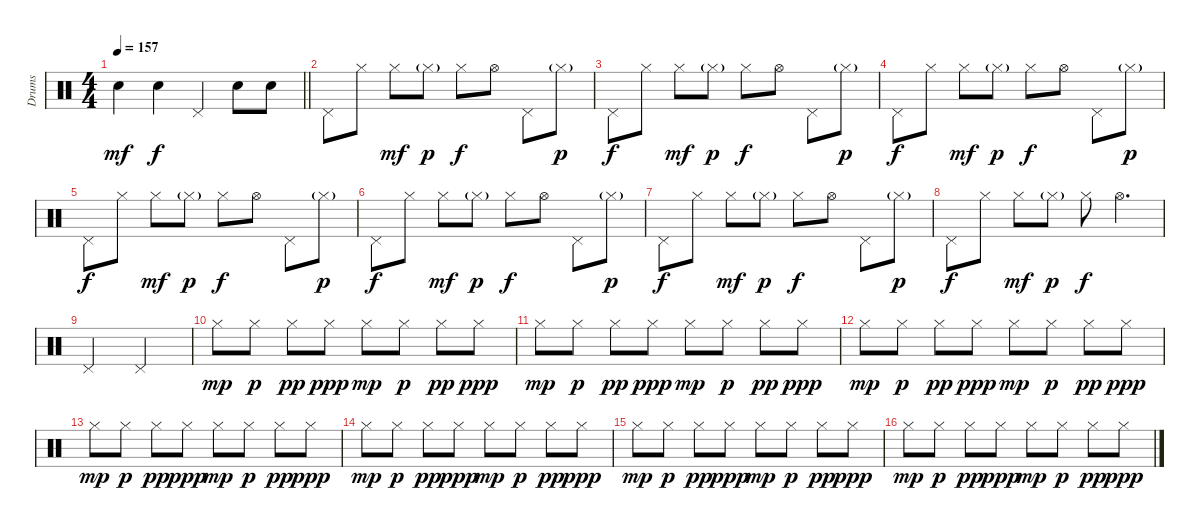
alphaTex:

\track ("Drums" "Drums") {instrument percussion}
\staff {score}
\articulation defaults
\ts (4 4)
\tempo 157
\clef neutral
\barLineRight lightlight
\ks c "Electric Snare (hit)".4{dy mf} "Electric Snare (hit)".4{dy f} "Pedal Hi-Hat (hit)".4 "Electric Snare (hit)".8 "Electric Snare (hit)".8
|
\section ("" "")
"Pedal Hi-Hat (hit)".8{volume 5} "Hi-Hat (closed)".8 "Hi-Hat (closed)".8{dy mf} "Hi-Hat (closed)"{g}.8{dy p} "Hi-Hat (closed)".8{dy f} "Hi-Hat (open)".8 "Pedal Hi-Hat (hit)".8 "Hi-Hat (closed)"{g}.8{dy p} |
"Pedal Hi-Hat (hit)".8{dy f} "Hi-Hat (closed)".8 "Hi-Hat (closed)".8{dy mf} "Hi-Hat (closed)"{g}.8{dy p} "Hi-Hat (closed)".8{dy f} "Hi-Hat (open)".8 "Pedal Hi-Hat (hit)".8 "Hi-Hat (closed)"{g}.8{dy p} |
"Pedal Hi-Hat (hit)".8{dy f} "Hi-Hat (closed)".8 "Hi-Hat (closed)".8{dy mf} "Hi-Hat (closed)"{g}.8{dy p} "Hi-Hat (closed)".8{dy f} "Hi-Hat (open)".8 "Pedal Hi-Hat (hit)".8 "Hi-Hat (closed)"{g}.8{dy p} |
"Pedal Hi-Hat (hit)".8{dy f} "Hi-Hat (closed)".8 "Hi-Hat (closed)".8{dy mf} "Hi-Hat (closed)"{g}.8{dy p} "Hi-Hat (closed)".8{dy f} "Hi-Hat (open)".8 "Pedal Hi-Hat (hit)".8 "Hi-Hat (closed)"{g}.8{dy p} |
"Pedal Hi-Hat (hit)".8{dy f} "Hi-Hat (closed)".8 "Hi-Hat (closed)".8{dy mf} "Hi-Hat (closed)"{g}.8{dy p} "Hi-Hat (closed)".8{dy f} "Hi-Hat (open)".8 "Pedal Hi-Hat (hit)".8 "Hi-Hat (closed)"{g}.8{dy p} |
"Pedal Hi-Hat (hit)".8{dy f} "Hi-Hat (closed)".8 "Hi-Hat (closed)".8{dy mf} "Hi-Hat (closed)"{g}.8{dy p} "Hi-Hat (closed)".8{dy f} "Hi-Hat (open)".8 "Pedal Hi-Hat (hit)".8 "Hi-Hat (closed)"{g}.8{dy p} |
"Pedal Hi-Hat (hit)".8{dy f} "Hi-Hat (closed)".8 "Hi-Hat (closed)".8{dy mf} "Hi-Hat (closed)"{g}.8{dy p} "Hi-Hat (closed)".8{dy f} "Hi-Hat (open)".4{d} |
"Pedal Hi-Hat (hit)".2 "Pedal Hi-Hat (hit)".2 |
"Hi-Hat (closed)".8{dy mp} "Hi-Hat (closed)".8{dy p} "Hi-Hat (closed)".8{dy pp} "Hi-Hat (closed)".8{dy ppp} "Hi-Hat (closed)".8{dy mp} "Hi-Hat (closed)".8{dy p} "Hi-Hat (closed)".8{dy pp} "Hi-Hat (closed)".8{dy ppp} |
"Hi-Hat (closed)".8{dy mp} "Hi-Hat (closed)".8{dy p} "Hi-Hat (closed)".8{dy pp} "Hi-Hat (closed)".8{dy ppp} "Hi-Hat (closed)".8{dy mp} "Hi-Hat (closed)".8{dy p} "Hi-Hat (closed)".8{dy pp} "Hi-Hat (closed)".8{dy ppp} |
"Hi-Hat (closed)".8{dy mp} "Hi-Hat (closed)".8{dy p} "Hi-Hat (closed)".8{dy pp} "Hi-Hat (closed)".8{dy ppp} "Hi-Hat (closed)".8{dy mp} "Hi-Hat (closed)".8{dy p} "Hi-Hat (closed)".8{dy pp} "Hi-Hat (closed)".8{dy ppp} |
"Hi-Hat (closed)".8{dy mp} "Hi-Hat (closed)".8{dy p} "Hi-Hat (closed)".8{dy pp} "Hi-Hat (closed)".8{dy ppp} "Hi-Hat (closed)".8{dy mp} "Hi-Hat (closed)".8{dy p} "Hi-Hat (closed)".8{dy pp} "Hi-Hat (closed)".8{dy ppp} |
"Hi-Hat (closed)".8{dy mp} "Hi-Hat (closed)".8{dy p} "Hi-Hat (closed)".8{dy pp} "Hi-Hat (closed)".8{dy ppp} "Hi-Hat (closed)".8{dy mp} "Hi-Hat (closed)".8{dy p} "Hi-Hat (closed)".8{dy pp} "Hi-Hat (closed)".8{dy ppp} |
"Hi-Hat (closed)".8{dy mp} "Hi-Hat (closed)".8{dy p} "Hi-Hat (closed)".8{dy pp} "Hi-Hat (closed)".8{dy ppp} "Hi-Hat (closed)".8{dy mp} "Hi-Hat (closed)".8{dy p} "Hi-Hat (closed)".8{dy pp} "Hi-Hat (closed)".8{dy ppp} |
"Hi-Hat (closed)".8{dy mp} "Hi-Hat (closed)".8{dy p} "Hi-Hat (closed)".8{dy pp} "Hi-Hat (closed)".8{dy ppp} "Hi-Hat (closed)".8{dy mp} "Hi-Hat (closed)".8{dy p} "Hi-Hat (closed)".8{dy pp} "Hi-Hat (closed)".8{dy ppp}
